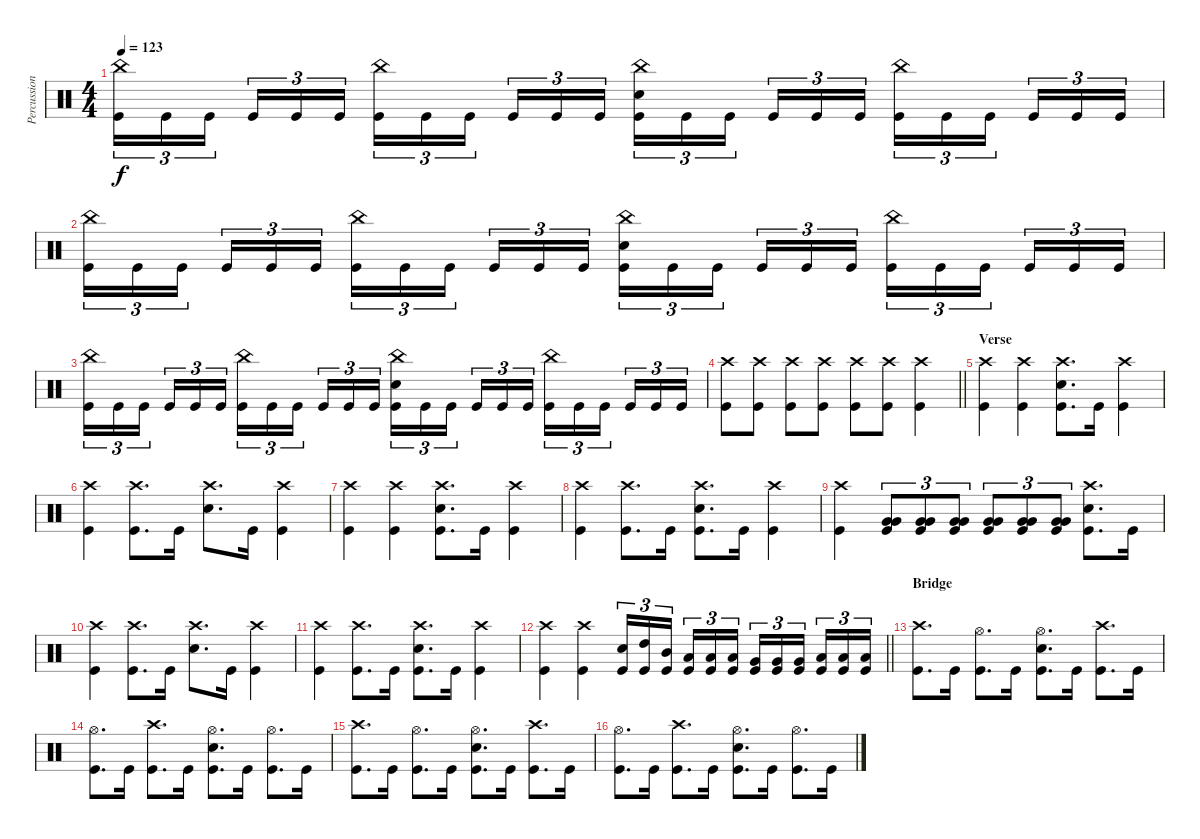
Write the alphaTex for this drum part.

\track ("Percussions" "Percussion") {instrument percussion}
\staff {score}
\articulation defaults
\ts (4 4)
\tempo 123
\clef neutral
\ks c
("China (hit)" "Kick (hit)").16{tu (3 2) dy f} "Kick (hit)".16{tu (3 2)} "Kick (hit)".16{tu (3 2) beam splitsecondary} "Kick (hit)".16{tu (3 2)} "Kick (hit)".16{tu (3 2)} "Kick (hit)".16{tu (3 2)} ("China (hit)" "Kick (hit)").16{tu (3 2)} "Kick (hit)".16{tu (3 2)} "Kick (hit)".16{tu (3 2) beam splitsecondary} "Kick (hit)".16{tu (3 2)} "Kick (hit)".16{tu (3 2)} "Kick (hit)".16{tu (3 2)} ("China (hit)" "Electric Snare (hit)" "Kick (hit)").16{tu (3 2)} "Kick (hit)".16{tu (3 2)} "Kick (hit)".16{tu (3 2) beam splitsecondary} "Kick (hit)".16{tu (3 2)} "Kick (hit)".16{tu (3 2)} "Kick (hit)".16{tu (3 2)} ("China (hit)" "Kick (hit)").16{tu (3 2)} "Kick (hit)".16{tu (3 2)} "Kick (hit)".16{tu (3 2) beam splitsecondary} "Kick (hit)".16{tu (3 2)} "Kick (hit)".16{tu (3 2)} "Kick (hit)".16{tu (3 2)} |
("China (hit)" "Kick (hit)").16{tu (3 2)} "Kick (hit)".16{tu (3 2)} "Kick (hit)".16{tu (3 2) beam splitsecondary} "Kick (hit)".16{tu (3 2)} "Kick (hit)".16{tu (3 2)} "Kick (hit)".16{tu (3 2)} ("China (hit)" "Kick (hit)").16{tu (3 2)} "Kick (hit)".16{tu (3 2)} "Kick (hit)".16{tu (3 2) beam splitsecondary} "Kick (hit)".16{tu (3 2)} "Kick (hit)".16{tu (3 2)} "Kick (hit)".16{tu (3 2)} ("China (hit)" "Electric Snare (hit)" "Kick (hit)").16{tu (3 2)} "Kick (hit)".16{tu (3 2)} "Kick (hit)".16{tu (3 2) beam splitsecondary} "Kick (hit)".16{tu (3 2)} "Kick (hit)".16{tu (3 2)} "Kick (hit)".16{tu (3 2)} ("China (hit)" "Kick (hit)").16{tu (3 2)} "Kick (hit)".16{tu (3 2)} "Kick (hit)".16{tu (3 2) beam splitsecondary} "Kick (hit)".16{tu (3 2)} "Kick (hit)".16{tu (3 2)} "Kick (hit)".16{tu (3 2)} |
("China (hit)" "Kick (hit)").16{tu (3 2)} "Kick (hit)".16{tu (3 2)} "Kick (hit)".16{tu (3 2) beam splitsecondary} "Kick (hit)".16{tu (3 2)} "Kick (hit)".16{tu (3 2)} "Kick (hit)".16{tu (3 2)} ("China (hit)" "Kick (hit)").16{tu (3 2)} "Kick (hit)".16{tu (3 2)} "Kick (hit)".16{tu (3 2) beam splitsecondary} "Kick (hit)".16{tu (3 2)} "Kick (hit)".16{tu (3 2)} "Kick (hit)".16{tu (3 2)} ("China (hit)" "Electric Snare (hit)" "Kick (hit)").16{tu (3 2)} "Kick (hit)".16{tu (3 2)} "Kick (hit)".16{tu (3 2) beam splitsecondary} "Kick (hit)".16{tu (3 2)} "Kick (hit)".16{tu (3 2)} "Kick (hit)".16{tu (3 2)} ("China (hit)" "Kick (hit)").16{tu (3 2)} "Kick (hit)".16{tu (3 2)} "Kick (hit)".16{tu (3 2) beam splitsecondary} "Kick (hit)".16{tu (3 2)} "Kick (hit)".16{tu (3 2)} "Kick (hit)".16{tu (3 2)} |
\barLineRight lightlight
("Crash high (hit)" "Kick (hit)").8 ("Crash high (hit)" "Kick (hit)").8 ("Crash high (hit)" "Kick (hit)").8 ("Crash high (hit)" "Kick (hit)").8 ("Crash high (hit)" "Kick (hit)").8 ("Crash high (hit)" "Kick (hit)").8 ("Crash high (hit)" "Kick (hit)").4 |
\section ("" "Verse")
("Crash high (hit)" "Kick (hit)").4 ("Crash high (hit)" "Kick (hit)").4 ("Crash high (hit)" "Electric Snare (hit)" "Kick (hit)").8{d} "Kick (hit)".16 ("Crash high (hit)" "Kick (hit)").4 |
("Crash high (hit)" "Kick (hit)").4 ("Crash high (hit)" "Kick (hit)").8{d} "Kick (hit)".16 ("Crash high (hit)" "Electric Snare (hit)").8{d} "Kick (hit)".16 ("Crash high (hit)" "Kick (hit)").4 |
("Crash high (hit)" "Kick (hit)").4 ("Crash high (hit)" "Kick (hit)").4 ("Crash high (hit)" "Electric Snare (hit)" "Kick (hit)").8{d} "Kick (hit)".16 ("Crash high (hit)" "Kick (hit)").4 |
("Crash high (hit)" "Kick (hit)").4 ("Crash high (hit)" "Kick (hit)").8{d} "Kick (hit)".16 ("Crash high (hit)" "Electric Snare (hit)" "Kick (hit)").8{d} "Kick (hit)".16 ("Crash high (hit)" "Kick (hit)").4 |
("Crash high (hit)" "Kick (hit)").4 ("Very Low Tom (hit)" "Very Low Tom (hit)" "Kick (hit)").8{tu (3 2)} ("Very Low Tom (hit)" "Very Low Tom (hit)" "Kick (hit)").8{tu (3 2)} ("Very Low Tom (hit)" "Very Low Tom (hit)" "Kick (hit)").8{tu (3 2)} ("Very Low Tom (hit)" "Very Low Tom (hit)" "Kick (hit)").8{tu (3 2)} ("Very Low Tom (hit)" "Very Low Tom (hit)" "Kick (hit)").8{tu (3 2)} ("Very Low Tom (hit)" "Very Low Tom (hit)" "Kick (hit)").8{tu (3 2)} ("Crash high (hit)" "Electric Snare (hit)" "Kick (hit)").8{d} "Kick (hit)".16 |
("Crash high (hit)" "Kick (hit)").4 ("Crash high (hit)" "Kick (hit)").8{d} "Kick (hit)".16 ("Crash high (hit)" "Electric Snare (hit)").8{d} "Kick (hit)".16 ("Crash high (hit)" "Kick (hit)").4 |
("Crash high (hit)" "Kick (hit)").4 ("Crash high (hit)" "Kick (hit)").8{d} "Kick (hit)".16 ("Crash high (hit)" "Electric Snare (hit)" "Kick (hit)").8{d} "Kick (hit)".16 ("Crash high (hit)" "Kick (hit)").4 |
\barLineRight lightlight
("Crash high (hit)" "Kick (hit)").4 ("Crash high (hit)" "Kick (hit)").4 ("Electric Snare (hit)" "Kick (hit)").16{tu (3 2)} ("High Tom (hit)" "Kick (hit)").16{tu (3 2)} ("Mid Tom (hit)" "Kick (hit)").16{tu (3 2) beam splitsecondary} ("Low Tom (hit)" "Kick (hit)").16{tu (3 2)} ("Low Tom (hit)" "Kick (hit)").16{tu (3 2)} ("Low Tom (hit)" "Kick (hit)").16{tu (3 2)} ("Very Low Tom (hit)" "Kick (hit)").16{tu (3 2)} ("Very Low Tom (hit)" "Kick (hit)").16{tu (3 2)} ("Very Low Tom (hit)" "Kick (hit)").16{tu (3 2) beam splitsecondary} ("Low Floor Tom (hit)" "Kick (hit)").16{tu (3 2)} ("Low Floor Tom (hit)" "Kick (hit)").16{tu (3 2)} ("Low Floor Tom (hit)" "Kick (hit)").16{tu (3 2)} |
\section ("" "Bridge")
("Crash high (hit)" "Kick (hit)").8{d} "Kick (hit)".16 ("Hi-Hat (open)" "Kick (hit)").8{d} "Kick (hit)".16 ("Hi-Hat (open)" "Electric Snare (hit)" "Kick (hit)").8{d} "Kick (hit)".16 ("Crash high (hit)" "Kick (hit)").8{d} "Kick (hit)".16 |
("Hi-Hat (open)" "Kick (hit)").8{d} "Kick (hit)".16 ("Crash high (hit)" "Kick (hit)").8{d} "Kick (hit)".16 ("Hi-Hat (open)" "Electric Snare (hit)" "Kick (hit)").8{d} "Kick (hit)".16 ("Hi-Hat (open)" "Kick (hit)").8{d} "Kick (hit)".16 |
("Crash high (hit)" "Kick (hit)").8{d} "Kick (hit)".16 ("Hi-Hat (open)" "Kick (hit)").8{d} "Kick (hit)".16 ("Hi-Hat (open)" "Electric Snare (hit)" "Kick (hit)").8{d} "Kick (hit)".16 ("Crash high (hit)" "Kick (hit)").8{d} "Kick (hit)".16 |
("Hi-Hat (open)" "Kick (hit)").8{d} "Kick (hit)".16 ("Crash high (hit)" "Kick (hit)").8{d} "Kick (hit)".16 ("Hi-Hat (open)" "Electric Snare (hit)" "Kick (hit)").8{d} "Kick (hit)".16 ("Hi-Hat (open)" "Kick (hit)").8{d} "Kick (hit)".16
